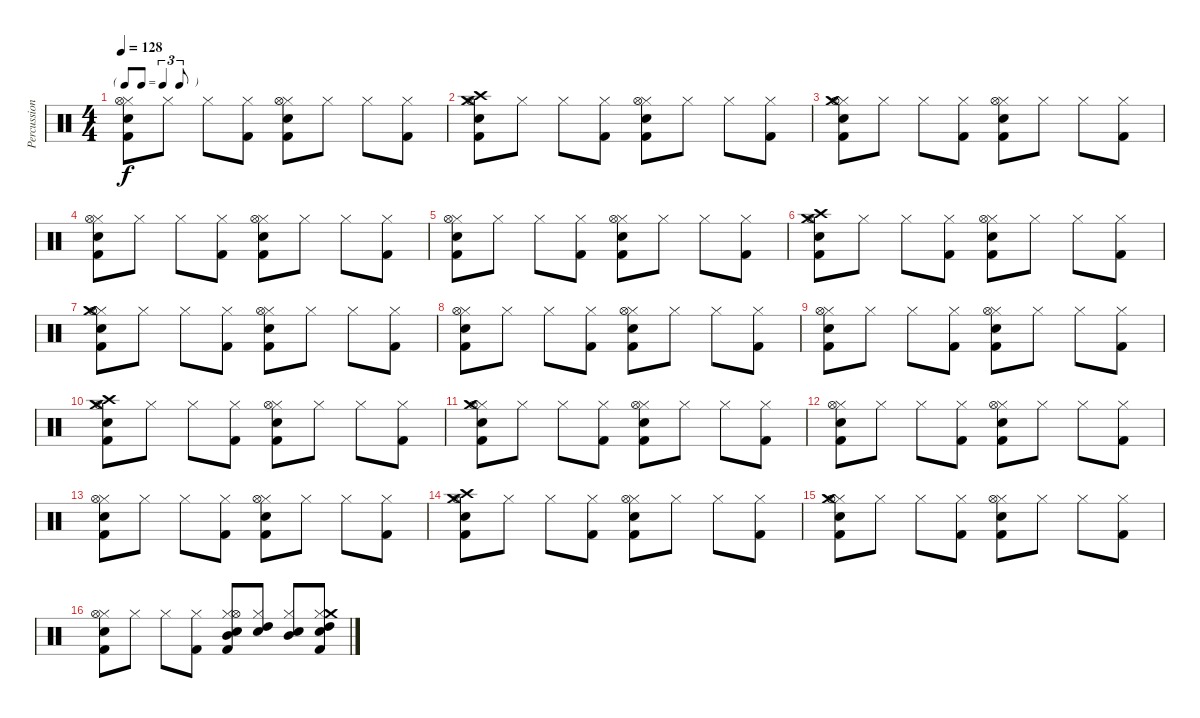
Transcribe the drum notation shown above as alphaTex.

\track ("Percussion" "Percussion") {instrument percussion}
\staff {score}
\articulation defaults
\ts (4 4)
\tf triplet8th
\tempo 128
\clef neutral
\ks c
("Kick (hit) 2" "Electric Snare (hit)" "Hi-Hat (closed)" "Hi-Hat (open)").8{dy f} "Hi-Hat (closed)".8 "Hi-Hat (closed)".8 ("Kick (hit) 2" "Hi-Hat (closed)").8 ("Kick (hit) 2" "Electric Snare (hit)" "Hi-Hat (closed)" "Hi-Hat (open)").8 "Hi-Hat (closed)".8 "Hi-Hat (closed)".8 ("Kick (hit) 2" "Hi-Hat (closed)").8 |
("Kick (hit) 2" "Electric Snare (hit)" "Crash medium (hit)" "Crash high (hit)" "Hi-Hat (open)").8 "Hi-Hat (closed)".8 "Hi-Hat (closed)".8 ("Kick (hit) 2" "Hi-Hat (closed)").8 ("Kick (hit) 2" "Electric Snare (hit)" "Hi-Hat (closed)" "Hi-Hat (open)").8 "Hi-Hat (closed)".8 "Hi-Hat (closed)".8 ("Kick (hit) 2" "Hi-Hat (closed)").8 |
("Kick (hit) 2" "Electric Snare (hit)" "Hi-Hat (closed)" "Crash medium (hit)" "Hi-Hat (open)").8 "Hi-Hat (closed)".8 "Hi-Hat (closed)".8 ("Kick (hit) 2" "Hi-Hat (closed)").8 ("Kick (hit) 2" "Electric Snare (hit)" "Hi-Hat (closed)" "Hi-Hat (open)").8 "Hi-Hat (closed)".8 "Hi-Hat (closed)".8 ("Kick (hit) 2" "Hi-Hat (closed)").8 |
("Kick (hit) 2" "Electric Snare (hit)" "Hi-Hat (closed)" "Hi-Hat (open)").8 "Hi-Hat (closed)".8 "Hi-Hat (closed)".8 ("Kick (hit) 2" "Hi-Hat (closed)").8 ("Kick (hit) 2" "Electric Snare (hit)" "Hi-Hat (closed)" "Hi-Hat (open)").8 "Hi-Hat (closed)".8 "Hi-Hat (closed)".8 ("Kick (hit) 2" "Hi-Hat (closed)").8 |
("Kick (hit) 2" "Electric Snare (hit)" "Hi-Hat (closed)" "Hi-Hat (open)").8 "Hi-Hat (closed)".8 "Hi-Hat (closed)".8 ("Kick (hit) 2" "Hi-Hat (closed)").8 ("Kick (hit) 2" "Electric Snare (hit)" "Hi-Hat (closed)" "Hi-Hat (open)").8 "Hi-Hat (closed)".8 "Hi-Hat (closed)".8 ("Kick (hit) 2" "Hi-Hat (closed)").8 |
("Kick (hit) 2" "Electric Snare (hit)" "Crash medium (hit)" "Crash high (hit)" "Hi-Hat (open)").8 "Hi-Hat (closed)".8 "Hi-Hat (closed)".8 ("Kick (hit) 2" "Hi-Hat (closed)").8 ("Kick (hit) 2" "Electric Snare (hit)" "Hi-Hat (closed)" "Hi-Hat (open)").8 "Hi-Hat (closed)".8 "Hi-Hat (closed)".8 ("Kick (hit) 2" "Hi-Hat (closed)").8 |
("Kick (hit) 2" "Electric Snare (hit)" "Hi-Hat (closed)" "Crash medium (hit)" "Hi-Hat (open)").8 "Hi-Hat (closed)".8 "Hi-Hat (closed)".8 ("Kick (hit) 2" "Hi-Hat (closed)").8 ("Kick (hit) 2" "Electric Snare (hit)" "Hi-Hat (closed)" "Hi-Hat (open)").8 "Hi-Hat (closed)".8 "Hi-Hat (closed)".8 ("Kick (hit) 2" "Hi-Hat (closed)").8 |
("Kick (hit) 2" "Electric Snare (hit)" "Hi-Hat (closed)" "Hi-Hat (open)").8 "Hi-Hat (closed)".8 "Hi-Hat (closed)".8 ("Kick (hit) 2" "Hi-Hat (closed)").8 ("Kick (hit) 2" "Electric Snare (hit)" "Hi-Hat (closed)" "Hi-Hat (open)").8 "Hi-Hat (closed)".8 "Hi-Hat (closed)".8 ("Kick (hit) 2" "Hi-Hat (closed)").8 |
("Kick (hit) 2" "Electric Snare (hit)" "Hi-Hat (closed)" "Hi-Hat (open)").8 "Hi-Hat (closed)".8 "Hi-Hat (closed)".8 ("Kick (hit) 2" "Hi-Hat (closed)").8 ("Kick (hit) 2" "Electric Snare (hit)" "Hi-Hat (closed)" "Hi-Hat (open)").8 "Hi-Hat (closed)".8 "Hi-Hat (closed)".8 ("Kick (hit) 2" "Hi-Hat (closed)").8 |
("Kick (hit) 2" "Electric Snare (hit)" "Crash medium (hit)" "Crash high (hit)" "Hi-Hat (open)").8 "Hi-Hat (closed)".8 "Hi-Hat (closed)".8 ("Kick (hit) 2" "Hi-Hat (closed)").8 ("Kick (hit) 2" "Electric Snare (hit)" "Hi-Hat (closed)" "Hi-Hat (open)").8 "Hi-Hat (closed)".8 "Hi-Hat (closed)".8 ("Kick (hit) 2" "Hi-Hat (closed)").8 |
("Kick (hit) 2" "Electric Snare (hit)" "Hi-Hat (closed)" "Crash medium (hit)" "Hi-Hat (open)").8 "Hi-Hat (closed)".8 "Hi-Hat (closed)".8 ("Kick (hit) 2" "Hi-Hat (closed)").8 ("Kick (hit) 2" "Electric Snare (hit)" "Hi-Hat (closed)" "Hi-Hat (open)").8 "Hi-Hat (closed)".8 "Hi-Hat (closed)".8 ("Kick (hit) 2" "Hi-Hat (closed)").8 |
("Kick (hit) 2" "Electric Snare (hit)" "Hi-Hat (closed)" "Hi-Hat (open)").8 "Hi-Hat (closed)".8 "Hi-Hat (closed)".8 ("Kick (hit) 2" "Hi-Hat (closed)").8 ("Kick (hit) 2" "Electric Snare (hit)" "Hi-Hat (closed)" "Hi-Hat (open)").8 "Hi-Hat (closed)".8 "Hi-Hat (closed)".8 ("Kick (hit) 2" "Hi-Hat (closed)").8 |
("Kick (hit) 2" "Electric Snare (hit)" "Hi-Hat (closed)" "Hi-Hat (open)").8 "Hi-Hat (closed)".8 "Hi-Hat (closed)".8 ("Kick (hit) 2" "Hi-Hat (closed)").8 ("Kick (hit) 2" "Electric Snare (hit)" "Hi-Hat (closed)" "Hi-Hat (open)").8 "Hi-Hat (closed)".8 "Hi-Hat (closed)".8 ("Kick (hit) 2" "Hi-Hat (closed)").8 |
("Kick (hit) 2" "Electric Snare (hit)" "Crash medium (hit)" "Crash high (hit)" "Hi-Hat (open)").8 "Hi-Hat (closed)".8 "Hi-Hat (closed)".8 ("Kick (hit) 2" "Hi-Hat (closed)").8 ("Kick (hit) 2" "Electric Snare (hit)" "Hi-Hat (closed)" "Hi-Hat (open)").8 "Hi-Hat (closed)".8 "Hi-Hat (closed)".8 ("Kick (hit) 2" "Hi-Hat (closed)").8 |
("Kick (hit) 2" "Electric Snare (hit)" "Hi-Hat (closed)" "Crash medium (hit)" "Hi-Hat (open)").8 "Hi-Hat (closed)".8 "Hi-Hat (closed)".8 ("Kick (hit) 2" "Hi-Hat (closed)").8 ("Kick (hit) 2" "Electric Snare (hit)" "Hi-Hat (closed)" "Hi-Hat (open)").8 "Hi-Hat (closed)".8 "Hi-Hat (closed)".8 ("Kick (hit) 2" "Hi-Hat (closed)").8 |
("Kick (hit) 2" "Electric Snare (hit)" "Hi-Hat (closed)" "Hi-Hat (open)").8 "Hi-Hat (closed)".8 "Hi-Hat (closed)".8 ("Kick (hit) 2" "Hi-Hat (closed)").8 ("Kick (hit) 2" "Electric Snare (hit)" "Hi-Hat (closed)" "Mid Tom (hit)" "Hi-Hat (open)").8 ("Electric Snare (hit)" "Hi-Hat (closed)" "High Tom (hit)").8 ("Electric Snare (hit)" "Hi-Hat (closed)" "Mid Tom (hit)").8 ("Kick (hit) 2" "Electric Snare (hit)" "Hi-Hat (closed)" "High Tom (hit)" "Crash medium (hit)").8
